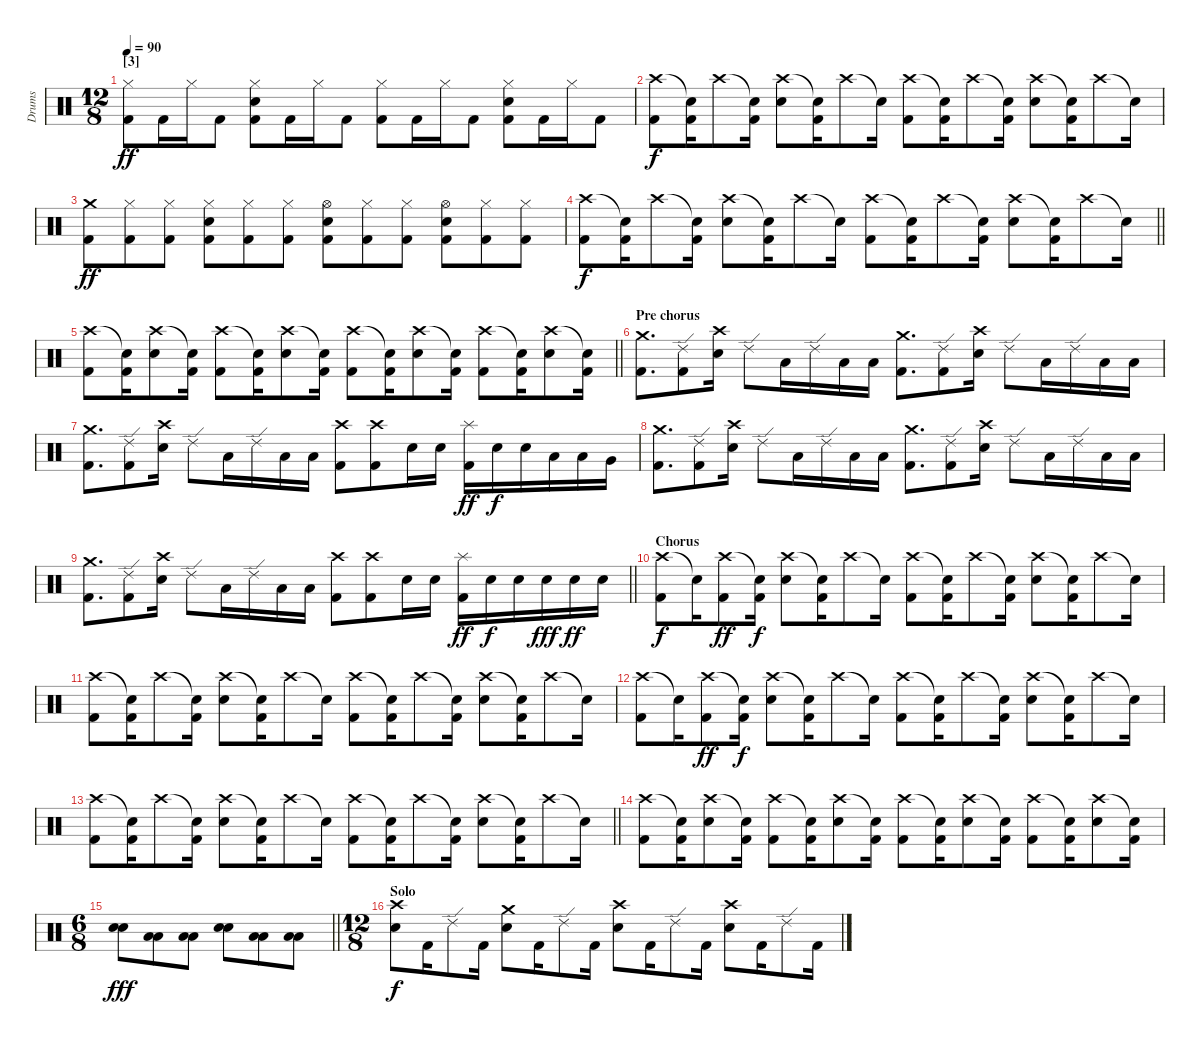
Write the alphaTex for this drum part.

\track ("Drums" "Drums") {instrument percussion}
\staff {score}
\articulation defaults
\ts (12 8)
\section ("" "[3]")
\tempo 90
\clef neutral
\ks c
("Hi-Hat (closed)" "Kick (hit) 2").8{dy ff} "Kick (hit) 2".16 "Hi-Hat (closed)".16 "Kick (hit) 2".8 ("Hi-Hat (closed)" "Electric Snare (hit)" "Kick (hit) 2").8 "Kick (hit) 2".16 "Hi-Hat (closed)".16 "Kick (hit) 2".8 ("Hi-Hat (closed)" "Kick (hit) 2").8 "Kick (hit) 2".16 "Hi-Hat (closed)".16 "Kick (hit) 2".8 ("Hi-Hat (closed)" "Electric Snare (hit)" "Kick (hit) 2").8 "Kick (hit) 2".16 "Hi-Hat (closed)".16 "Kick (hit) 2".8 |
("Crash high (hit)" "Kick (hit) 2").8{dy f} ("Snare (hit)"{t} "Kick (hit) 2").16 "Crash high (hit)".8 ("Snare (hit)"{t} "Kick (hit) 2").16 ("Crash high (hit)" "Electric Snare (hit)").8 ("Snare (hit)"{t} "Kick (hit) 2").16 "Crash high (hit)".8 "Snare (hit)"{t}.16 ("Crash high (hit)" "Kick (hit) 2").8 ("Snare (hit)"{t} "Kick (hit) 2").16 "Crash high (hit)".8 ("Snare (hit)"{t} "Kick (hit) 2").16 ("Crash high (hit)" "Electric Snare (hit)").8 ("Snare (hit)"{t} "Kick (hit) 2").16 "Crash high (hit)".8 "Snare (hit)"{t}.16 |
("Crash medium (hit)" "Kick (hit) 2").8{dy ff} ("Hi-Hat (closed)" "Kick (hit) 2").8 ("Hi-Hat (closed)" "Kick (hit) 2").8 ("Hi-Hat (closed)" "Electric Snare (hit)" "Kick (hit) 2").8 ("Hi-Hat (closed)" "Kick (hit) 2").8 ("Hi-Hat (closed)" "Kick (hit) 2").8 ("Hi-Hat (open)" "Electric Snare (hit)" "Kick (hit) 2").8 ("Hi-Hat (closed)" "Kick (hit) 2").8 ("Hi-Hat (closed)" "Kick (hit) 2").8 ("Hi-Hat (open)" "Electric Snare (hit)" "Kick (hit) 2").8 ("Hi-Hat (closed)" "Kick (hit) 2").8 ("Hi-Hat (closed)" "Kick (hit) 2").8 |
\barLineRight lightlight
("Crash high (hit)" "Kick (hit) 2").8{dy f} ("Snare (hit)"{t} "Kick (hit) 2").16 "Crash high (hit)".8 ("Snare (hit)"{t} "Kick (hit) 2").16 ("Crash high (hit)" "Electric Snare (hit)").8 ("Snare (hit)"{t} "Kick (hit) 2").16 "Crash high (hit)".8 "Snare (hit)"{t}.16 ("Crash high (hit)" "Kick (hit) 2").8 ("Snare (hit)"{t} "Kick (hit) 2").16 "Crash high (hit)".8 ("Snare (hit)"{t} "Kick (hit) 2").16 ("Crash high (hit)" "Electric Snare (hit)").8 ("Snare (hit)"{t} "Kick (hit) 2").16 "Crash high (hit)".8 "Snare (hit)"{t}.16 |
\section ("" "")
\barLineRight lightlight
("Crash high (hit)" "Kick (hit) 2").8 ("Snare (hit)"{t} "Kick (hit) 2").16 ("Crash high (hit)" "Electric Snare (hit)").8 ("Snare (hit)"{t} "Kick (hit) 2").16 ("Crash high (hit)" "Kick (hit) 2").8 ("Snare (hit)"{t} "Kick (hit) 2").16 ("Crash high (hit)" "Electric Snare (hit)").8 ("Snare (hit)"{t} "Kick (hit) 2").16 ("Crash high (hit)" "Kick (hit) 2").8 ("Snare (hit)"{t} "Kick (hit) 2").16 ("Crash high (hit)" "Electric Snare (hit)").8 ("Snare (hit)"{t} "Kick (hit) 2").16 ("Crash high (hit)" "Kick (hit) 2").8 ("Snare (hit)"{t} "Kick (hit) 2").16 ("Crash high (hit)" "Electric Snare (hit)").8 ("Snare (hit)"{t} "Kick (hit) 2").16 |
\section ("" "Pre chorus")
("Crash medium (hit)" "Kick (hit) 2").8{d} ("Ride (edge) 2" "Kick (hit) 2").8 ("Crash high (hit)" "Electric Snare (hit)").16 "Ride (edge) 2".8 "Low Tom (hit)".16 "Ride (edge) 2".16 "Low Floor Tom (hit)".16 "Low Floor Tom (hit)".16 ("Crash medium (hit)" "Kick (hit) 2").8{d} ("Ride (edge) 2" "Kick (hit) 2").8 ("Crash high (hit)" "Electric Snare (hit)").16 "Ride (edge) 2".8 "Low Tom (hit)".16 "Ride (edge) 2".16 "Low Floor Tom (hit)".16 "Low Floor Tom (hit)".16 |
("Crash medium (hit)" "Kick (hit) 2").8{d} ("Ride (edge) 2" "Kick (hit) 2").8 ("Crash high (hit)" "Electric Snare (hit)").16 "Ride (edge) 2".8 "Low Tom (hit)".16 "Ride (edge) 2".16 "Low Floor Tom (hit)".16 "Low Floor Tom (hit)".16 ("Crash high (hit)" "Kick (hit) 2").8 ("Crash high (hit)" "Kick (hit) 2").8 "Electric Snare (hit)".16 "Electric Snare (hit)".16 ("Splash (hit)" "Kick (hit) 2").16{dy ff} "Electric Snare (hit)".16{dy f} "Electric Snare (hit)".16 "Low Tom (hit)".16 "Low Tom (hit)".16 "Very Low Tom (hit)".16 |
("Crash medium (hit)" "Kick (hit) 2").8{d} ("Ride (edge) 2" "Kick (hit) 2").8 ("Crash high (hit)" "Electric Snare (hit)").16 "Ride (edge) 2".8 "Low Tom (hit)".16 "Ride (edge) 2".16 "Low Floor Tom (hit)".16 "Low Floor Tom (hit)".16 ("Crash medium (hit)" "Kick (hit) 2").8{d} ("Ride (edge) 2" "Kick (hit) 2").8 ("Crash high (hit)" "Electric Snare (hit)").16 "Ride (edge) 2".8 "Low Tom (hit)".16 "Ride (edge) 2".16 "Low Floor Tom (hit)".16 "Low Floor Tom (hit)".16 |
\barLineRight lightlight
("Crash medium (hit)" "Kick (hit) 2").8{d} ("Ride (edge) 2" "Kick (hit) 2").8 ("Crash high (hit)" "Electric Snare (hit)").16 "Ride (edge) 2".8 "Low Tom (hit)".16 "Ride (edge) 2".16 "Low Floor Tom (hit)".16 "Low Floor Tom (hit)".16 ("Crash high (hit)" "Kick (hit) 2").8 ("Crash high (hit)" "Kick (hit) 2").8 "Electric Snare (hit)".16 "Electric Snare (hit)".16 ("Splash (hit)" "Kick (hit) 2").16{dy ff} "Electric Snare (hit)".16{dy f} "Electric Snare (hit)".16 "Electric Snare (hit)".16{dy fff} "Electric Snare (hit)".16{dy ff} "Electric Snare (hit)".16 |
\section ("" "Chorus")
("Crash high (hit)" "Kick (hit) 2").8{dy f} "Snare (hit)"{t}.16 ("Crash high (hit)" "Kick (hit) 2").8{dy ff} ("Snare (hit)"{t} "Kick (hit) 2").16{dy f} ("Crash high (hit)" "Electric Snare (hit)").8 ("Snare (hit)"{t} "Kick (hit) 2").16 "Crash high (hit)".8 "Snare (hit)"{t}.16 ("Crash high (hit)" "Kick (hit) 2").8 ("Snare (hit)"{t} "Kick (hit) 2").16 "Crash high (hit)".8 ("Snare (hit)"{t} "Kick (hit) 2").16 ("Crash high (hit)" "Electric Snare (hit)").8 ("Snare (hit)"{t} "Kick (hit) 2").16 "Crash high (hit)".8 "Snare (hit)"{t}.16 |
("Crash high (hit)" "Kick (hit) 2").8 ("Snare (hit)"{t} "Kick (hit) 2").16 "Crash high (hit)".8 ("Snare (hit)"{t} "Kick (hit) 2").16 ("Crash high (hit)" "Electric Snare (hit)").8 ("Snare (hit)"{t} "Kick (hit) 2").16 "Crash high (hit)".8 "Snare (hit)"{t}.16 ("Crash high (hit)" "Kick (hit) 2").8 ("Snare (hit)"{t} "Kick (hit) 2").16 "Crash high (hit)".8 ("Snare (hit)"{t} "Kick (hit) 2").16 ("Crash high (hit)" "Electric Snare (hit)").8 ("Snare (hit)"{t} "Kick (hit) 2").16 "Crash high (hit)".8 "Snare (hit)"{t}.16 |
("Crash high (hit)" "Kick (hit) 2").8 "Snare (hit)"{t}.16 ("Crash high (hit)" "Kick (hit) 2").8{dy ff} ("Snare (hit)"{t} "Kick (hit) 2").16{dy f} ("Crash high (hit)" "Electric Snare (hit)").8 ("Snare (hit)"{t} "Kick (hit) 2").16 "Crash high (hit)".8 "Snare (hit)"{t}.16 ("Crash high (hit)" "Kick (hit) 2").8 ("Snare (hit)"{t} "Kick (hit) 2").16 "Crash high (hit)".8 ("Snare (hit)"{t} "Kick (hit) 2").16 ("Crash high (hit)" "Electric Snare (hit)").8 ("Snare (hit)"{t} "Kick (hit) 2").16 "Crash high (hit)".8 "Snare (hit)"{t}.16 |
\barLineRight lightlight
("Crash high (hit)" "Kick (hit) 2").8 ("Snare (hit)"{t} "Kick (hit) 2").16 "Crash high (hit)".8 ("Snare (hit)"{t} "Kick (hit) 2").16 ("Crash high (hit)" "Electric Snare (hit)").8 ("Snare (hit)"{t} "Kick (hit) 2").16 "Crash high (hit)".8 "Snare (hit)"{t}.16 ("Crash high (hit)" "Kick (hit) 2").8 ("Snare (hit)"{t} "Kick (hit) 2").16 "Crash high (hit)".8 ("Snare (hit)"{t} "Kick (hit) 2").16 ("Crash high (hit)" "Electric Snare (hit)").8 ("Snare (hit)"{t} "Kick (hit) 2").16 "Crash high (hit)".8 "Snare (hit)"{t}.16 |
\section ("" "")
("Crash high (hit)" "Kick (hit) 2").8 ("Snare (hit)"{t} "Kick (hit) 2").16 ("Crash high (hit)" "Electric Snare (hit)").8 ("Snare (hit)"{t} "Kick (hit) 2").16 ("Crash high (hit)" "Kick (hit) 2").8 ("Snare (hit)"{t} "Kick (hit) 2").16 ("Crash high (hit)" "Electric Snare (hit)").8 ("Snare (hit)"{t} "Kick (hit) 2").16 ("Crash high (hit)" "Kick (hit) 2").8 ("Snare (hit)"{t} "Kick (hit) 2").16 ("Crash high (hit)" "Electric Snare (hit)").8 ("Snare (hit)"{t} "Kick (hit) 2").16 ("Crash high (hit)" "Kick (hit) 2").8 ("Snare (hit)"{t} "Kick (hit) 2").16 ("Crash high (hit)" "Electric Snare (hit)").8 ("Snare (hit)"{t} "Kick (hit) 2").16 |
\ts (6 8)
\barLineRight lightlight
("Electric Snare (hit)" "Electric Snare (hit)").8{dy fff} ("Low Tom (hit)" "Low Tom (hit)").8 ("Low Floor Tom (hit)" "Low Floor Tom (hit)").8 ("Electric Snare (hit)" "Electric Snare (hit)").8 ("Low Tom (hit)" "Low Tom (hit)").8 ("Low Floor Tom (hit)" "Low Floor Tom (hit)").8 |
\ts (12 8)
\section ("" "Solo")
("Crash high (hit)" "Electric Snare (hit)").8{dy f} "Kick (hit) 2".16 "Ride (edge) 2".8 "Kick (hit) 2".16 ("Crash medium (hit)" "Electric Snare (hit)").8 "Kick (hit) 2".16 "Ride (edge) 2".8 "Kick (hit) 2".16 ("Crash high (hit)" "Electric Snare (hit)").8 "Kick (hit) 2".16 "Ride (edge) 2".8 "Kick (hit) 2".16 ("Crash high (hit)" "Electric Snare (hit)").8 "Kick (hit) 2".16 "Ride (edge) 2".8 "Kick (hit) 2".16
